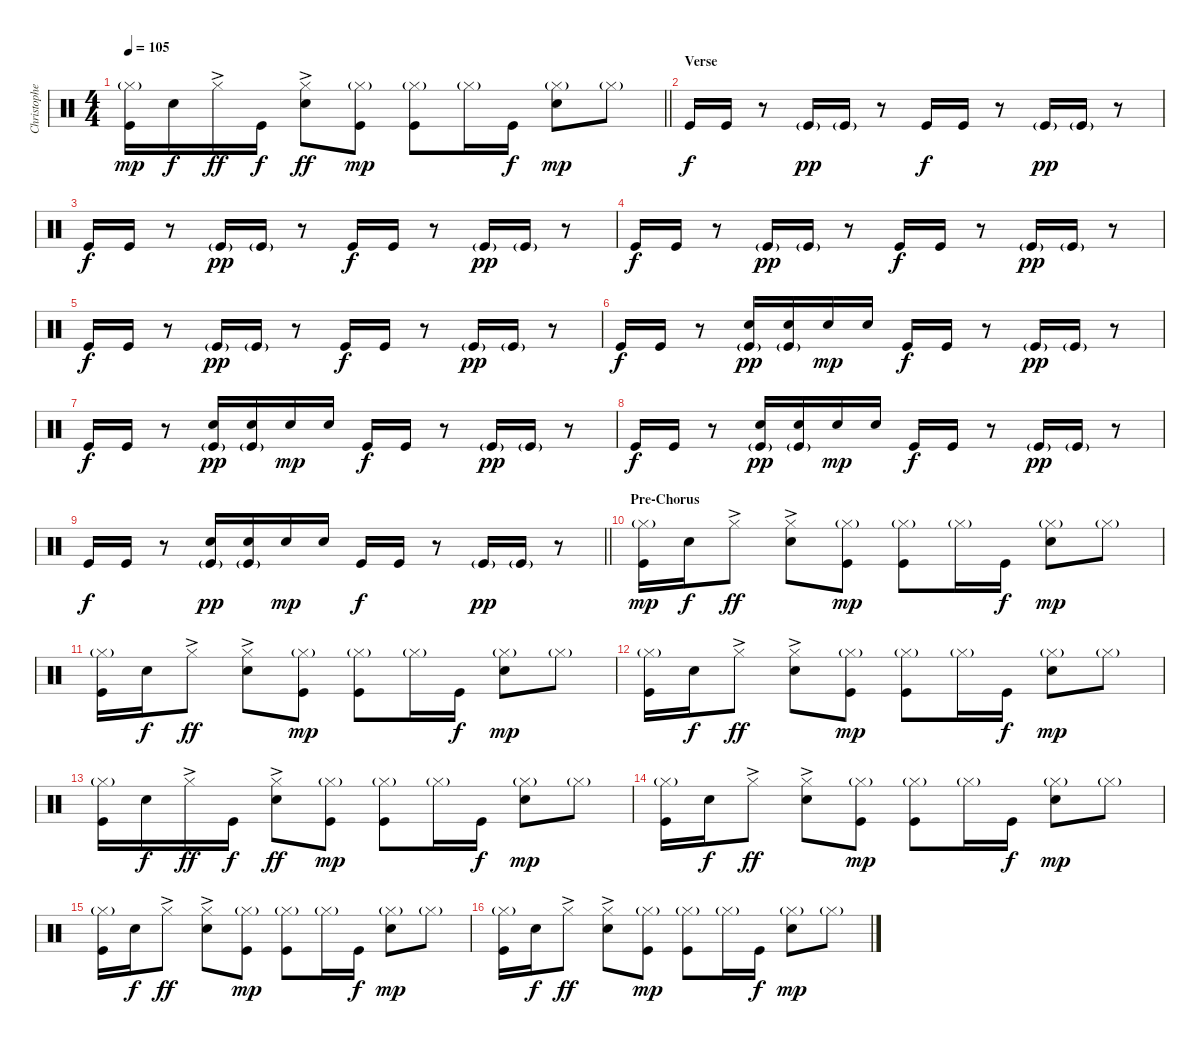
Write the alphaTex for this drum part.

\track ("Christopher - Drums" "Christophe") {instrument percussion}
\staff {score}
\articulation defaults
\ts (4 4)
\tempo 105
\clef neutral
\barLineRight lightlight
\ks c
("Hi-Hat (closed)"{g} "Kick (hit)").16{dy mp} "Snare (hit) 2".16{dy f} "Hi-Hat (closed)"{ac}.16{dy ff} "Kick (hit)".16{dy f} ("Hi-Hat (closed)"{ac} "Snare (hit) 2").8{dy ff} ("Hi-Hat (closed)"{g} "Kick (hit)").8{dy mp} ("Hi-Hat (closed)"{g} "Kick (hit)").8 "Hi-Hat (closed)"{g}.16 "Kick (hit)".16{dy f} ("Hi-Hat (closed)"{g} "Snare (hit) 2").8{dy mp} "Hi-Hat (closed)"{g}.8 |
\section ("" "Verse")
"Kick (hit)".16{dy f} "Kick (hit)".16 r.8 "Kick (hit)"{g}.16{dy pp} "Kick (hit)"{g}.16 r.8 "Kick (hit)".16{dy f} "Kick (hit)".16 r.8 "Kick (hit)"{g}.16{dy pp} "Kick (hit)"{g}.16 r.8 |
"Kick (hit)".16{dy f} "Kick (hit)".16 r.8 "Kick (hit)"{g}.16{dy pp} "Kick (hit)"{g}.16 r.8 "Kick (hit)".16{dy f} "Kick (hit)".16 r.8 "Kick (hit)"{g}.16{dy pp} "Kick (hit)"{g}.16 r.8 |
"Kick (hit)".16{dy f} "Kick (hit)".16 r.8 "Kick (hit)"{g}.16{dy pp} "Kick (hit)"{g}.16 r.8 "Kick (hit)".16{dy f} "Kick (hit)".16 r.8 "Kick (hit)"{g}.16{dy pp} "Kick (hit)"{g}.16 r.8 |
"Kick (hit)".16{dy f} "Kick (hit)".16 r.8 "Kick (hit)"{g}.16{dy pp} "Kick (hit)"{g}.16 r.8 "Kick (hit)".16{dy f} "Kick (hit)".16 r.8 "Kick (hit)"{g}.16{dy pp} "Kick (hit)"{g}.16 r.8 |
"Kick (hit)".16{dy f} "Kick (hit)".16 r.8 ("Snare (hit) 2" "Kick (hit)"{g}).16{dy pp} ("Snare (hit) 2" "Kick (hit)"{g}).16 "Snare (hit) 2".16{dy mp} "Snare (hit) 2".16 "Kick (hit)".16{dy f} "Kick (hit)".16 r.8 "Kick (hit)"{g}.16{dy pp} "Kick (hit)"{g}.16 r.8 |
"Kick (hit)".16{dy f} "Kick (hit)".16 r.8 ("Snare (hit) 2" "Kick (hit)"{g}).16{dy pp} ("Snare (hit) 2" "Kick (hit)"{g}).16 "Snare (hit) 2".16{dy mp} "Snare (hit) 2".16 "Kick (hit)".16{dy f} "Kick (hit)".16 r.8 "Kick (hit)"{g}.16{dy pp} "Kick (hit)"{g}.16 r.8 |
"Kick (hit)".16{dy f} "Kick (hit)".16 r.8 ("Snare (hit) 2" "Kick (hit)"{g}).16{dy pp} ("Snare (hit) 2" "Kick (hit)"{g}).16 "Snare (hit) 2".16{dy mp} "Snare (hit) 2".16 "Kick (hit)".16{dy f} "Kick (hit)".16 r.8 "Kick (hit)"{g}.16{dy pp} "Kick (hit)"{g}.16 r.8 |
\barLineRight lightlight "Kick (hit)".16{dy f} "Kick (hit)".16
r.8 ("Snare (hit) 2" "Kick (hit)"{g}).16{dy pp} ("Snare (hit) 2" "Kick (hit)"{g}).16 "Snare (hit) 2".16{dy mp} "Snare (hit) 2".16 "Kick (hit)".16{dy f} "Kick (hit)".16 r.8 "Kick (hit)"{g}.16{dy pp} "Kick (hit)"{g}.16 r.8 |
\section ("" "Pre-Chorus")
("Hi-Hat (closed)"{g} "Kick (hit)").16{dy mp} "Snare (hit) 2".16{dy f} "Hi-Hat (closed)"{ac}.8{dy ff} ("Hi-Hat (closed)"{ac} "Snare (hit) 2").8 ("Hi-Hat (closed)"{g} "Kick (hit)").8{dy mp} ("Hi-Hat (closed)"{g} "Kick (hit)").8 "Hi-Hat (closed)"{g}.16 "Kick (hit)".16{dy f} ("Hi-Hat (closed)"{g} "Snare (hit) 2").8{dy mp} "Hi-Hat (closed)"{g}.8 |
("Hi-Hat (closed)"{g} "Kick (hit)").16 "Snare (hit) 2".16{dy f} "Hi-Hat (closed)"{ac}.8{dy ff} ("Hi-Hat (closed)"{ac} "Snare (hit) 2").8 ("Hi-Hat (closed)"{g} "Kick (hit)").8{dy mp} ("Hi-Hat (closed)"{g} "Kick (hit)").8 "Hi-Hat (closed)"{g}.16 "Kick (hit)".16{dy f} ("Hi-Hat (closed)"{g} "Snare (hit) 2").8{dy mp} "Hi-Hat (closed)"{g}.8 |
("Hi-Hat (closed)"{g} "Kick (hit)").16 "Snare (hit) 2".16{dy f} "Hi-Hat (closed)"{ac}.8{dy ff} ("Hi-Hat (closed)"{ac} "Snare (hit) 2").8 ("Hi-Hat (closed)"{g} "Kick (hit)").8{dy mp} ("Hi-Hat (closed)"{g} "Kick (hit)").8 "Hi-Hat (closed)"{g}.16 "Kick (hit)".16{dy f} ("Hi-Hat (closed)"{g} "Snare (hit) 2").8{dy mp} "Hi-Hat (closed)"{g}.8 |
("Hi-Hat (closed)"{g} "Kick (hit)").16 "Snare (hit) 2".16{dy f} "Hi-Hat (closed)"{ac}.16{dy ff} "Kick (hit)".16{dy f} ("Hi-Hat (closed)"{ac} "Snare (hit) 2").8{dy ff} ("Hi-Hat (closed)"{g} "Kick (hit)").8{dy mp} ("Hi-Hat (closed)"{g} "Kick (hit)").8 "Hi-Hat (closed)"{g}.16 "Kick (hit)".16{dy f} ("Hi-Hat (closed)"{g} "Snare (hit) 2").8{dy mp} "Hi-Hat (closed)"{g}.8 |
("Hi-Hat (closed)"{g} "Kick (hit)").16 "Snare (hit) 2".16{dy f} "Hi-Hat (closed)"{ac}.8{dy ff} ("Hi-Hat (closed)"{ac} "Snare (hit) 2").8 ("Hi-Hat (closed)"{g} "Kick (hit)").8{dy mp} ("Hi-Hat (closed)"{g} "Kick (hit)").8 "Hi-Hat (closed)"{g}.16 "Kick (hit)".16{dy f} ("Hi-Hat (closed)"{g} "Snare (hit) 2").8{dy mp} "Hi-Hat (closed)"{g}.8 |
("Hi-Hat (closed)"{g} "Kick (hit)").16 "Snare (hit) 2".16{dy f} "Hi-Hat (closed)"{ac}.8{dy ff} ("Hi-Hat (closed)"{ac} "Snare (hit) 2").8 ("Hi-Hat (closed)"{g} "Kick (hit)").8{dy mp} ("Hi-Hat (closed)"{g} "Kick (hit)").8 "Hi-Hat (closed)"{g}.16 "Kick (hit)".16{dy f} ("Hi-Hat (closed)"{g} "Snare (hit) 2").8{dy mp} "Hi-Hat (closed)"{g}.8 |
("Hi-Hat (closed)"{g} "Kick (hit)").16 "Snare (hit) 2".16{dy f} "Hi-Hat (closed)"{ac}.8{dy ff} ("Hi-Hat (closed)"{ac} "Snare (hit) 2").8 ("Hi-Hat (closed)"{g} "Kick (hit)").8{dy mp} ("Hi-Hat (closed)"{g} "Kick (hit)").8 "Hi-Hat (closed)"{g}.16 "Kick (hit)".16{dy f} ("Hi-Hat (closed)"{g} "Snare (hit) 2").8{dy mp} "Hi-Hat (closed)"{g}.8
